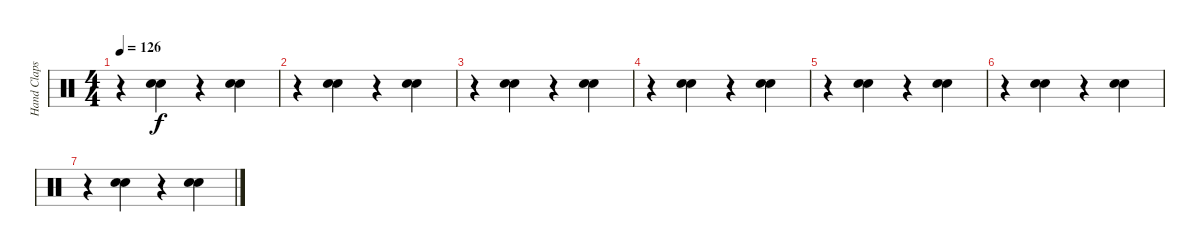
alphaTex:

\track ("Hand Claps" "Hand Claps") {instrument percussion}
\staff {score}
\articulation defaults
\ts (4 4)
\tempo 126
\clef neutral
\ks c
r.4{dy f} ("Hand Clap (hit)" "Hand Clap (hit)").4 r.4 ("Hand Clap (hit)" "Hand Clap (hit)").4 |
r.4 ("Hand Clap (hit)" "Hand Clap (hit)").4 r.4 ("Hand Clap (hit)" "Hand Clap (hit)").4 |
r.4 ("Hand Clap (hit)" "Hand Clap (hit)").4 r.4 ("Hand Clap (hit)" "Hand Clap (hit)").4 |
r.4 ("Hand Clap (hit)" "Hand Clap (hit)").4 r.4 ("Hand Clap (hit)" "Hand Clap (hit)").4 |
r.4 ("Hand Clap (hit)" "Hand Clap (hit)").4 r.4 ("Hand Clap (hit)" "Hand Clap (hit)").4 |
r.4 ("Hand Clap (hit)" "Hand Clap (hit)").4 r.4 ("Hand Clap (hit)" "Hand Clap (hit)").4 |
r.4 ("Hand Clap (hit)" "Hand Clap (hit)").4 r.4 ("Hand Clap (hit)" "Hand Clap (hit)").4
